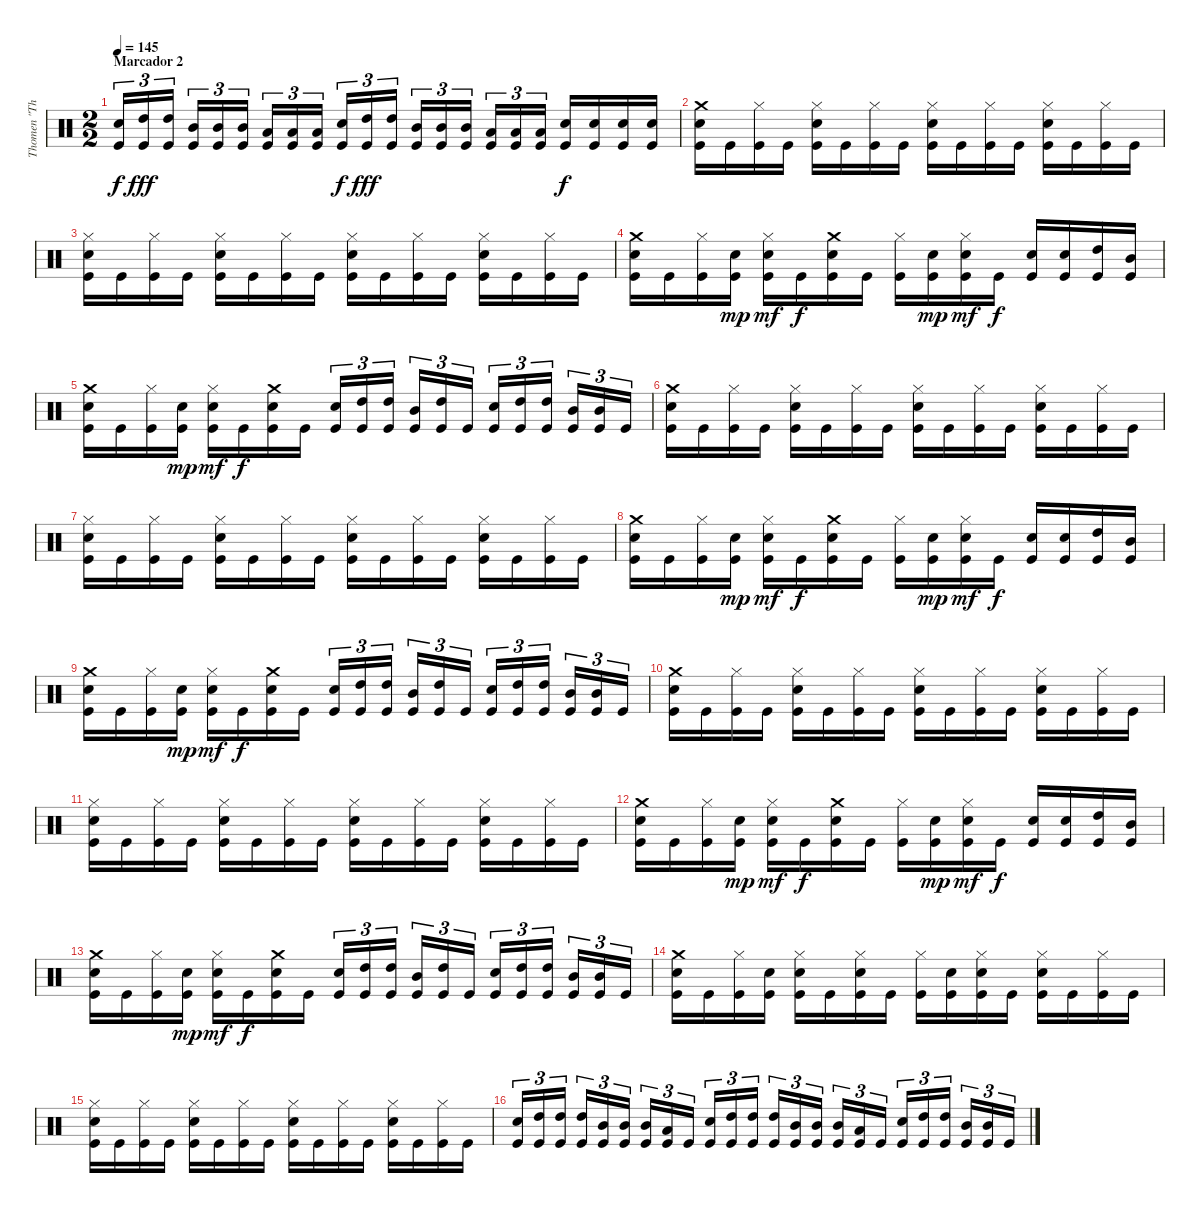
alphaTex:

\track ("Thomen \"The Omen\" Stauch" "Thomen \"Th") {instrument percussion}
\staff {score}
\articulation defaults
\ts (2 2)
\section ("" "Marcador 2")
\tempo 145
\clef neutral
\ks c
("Snare (hit) 2" "Kick (hit)").16{tu (3 2) dy f} ("High Tom (hit)" "Kick (hit)").16{tu (3 2) dy fff} ("High Tom (hit)" "Kick (hit)").16{tu (3 2)} ("Mid Tom (hit)" "Kick (hit)").16{tu (3 2)} ("Mid Tom (hit)" "Kick (hit)").16{tu (3 2)} ("Mid Tom (hit)" "Kick (hit)").16{tu (3 2)} ("Low Tom (hit)" "Kick (hit)").16{tu (3 2)} ("Low Tom (hit)" "Kick (hit)").16{tu (3 2)} ("Low Tom (hit)" "Kick (hit)").16{tu (3 2)} ("Snare (hit) 2" "Kick (hit)").16{tu (3 2) dy f} ("High Tom (hit)" "Kick (hit)").16{tu (3 2) dy fff} ("High Tom (hit)" "Kick (hit)").16{tu (3 2)} ("Mid Tom (hit)" "Kick (hit)").16{tu (3 2)} ("Mid Tom (hit)" "Kick (hit)").16{tu (3 2)} ("Mid Tom (hit)" "Kick (hit)").16{tu (3 2)} ("Low Tom (hit)" "Kick (hit)").16{tu (3 2)} ("Low Tom (hit)" "Kick (hit)").16{tu (3 2)} ("Low Tom (hit)" "Kick (hit)").16{tu (3 2)} ("Snare (hit) 2" "Kick (hit)").16{dy f} ("Snare (hit) 2" "Kick (hit)").16 ("Snare (hit) 2" "Kick (hit)").16 ("Snare (hit) 2" "Kick (hit)").16 |
("Crash medium (hit)" "Snare (hit) 2" "Kick (hit)").16 "Kick (hit)".16 ("Hi-Hat (closed)" "Kick (hit)").16 "Kick (hit)".16 ("Hi-Hat (closed)" "Snare (hit) 2" "Kick (hit)").16 "Kick (hit)".16 ("Hi-Hat (closed)" "Kick (hit)").16 "Kick (hit)".16 ("Hi-Hat (closed)" "Snare (hit) 2" "Kick (hit)").16 "Kick (hit)".16 ("Hi-Hat (closed)" "Kick (hit)").16 "Kick (hit)".16 ("Hi-Hat (closed)" "Snare (hit) 2" "Kick (hit)").16 "Kick (hit)".16 ("Hi-Hat (closed)" "Kick (hit)").16 "Kick (hit)".16 |
("Hi-Hat (closed)" "Snare (hit) 2" "Kick (hit)").16 "Kick (hit)".16 ("Hi-Hat (closed)" "Kick (hit)").16 "Kick (hit)".16 ("Hi-Hat (closed)" "Snare (hit) 2" "Kick (hit)").16 "Kick (hit)".16 ("Hi-Hat (closed)" "Kick (hit)").16 "Kick (hit)".16 ("Hi-Hat (closed)" "Snare (hit) 2" "Kick (hit)").16 "Kick (hit)".16 ("Hi-Hat (closed)" "Kick (hit)").16 "Kick (hit)".16 ("Hi-Hat (closed)" "Snare (hit) 2" "Kick (hit)").16 "Kick (hit)".16 ("Hi-Hat (closed)" "Kick (hit)").16 "Kick (hit)".16 |
("Crash medium (hit)" "Snare (hit) 2" "Kick (hit)").16 "Kick (hit)".16 ("Hi-Hat (closed)" "Kick (hit)").16 ("Snare (hit) 2" "Kick (hit)").16{dy mp} ("Hi-Hat (closed)" "Snare (hit) 2" "Kick (hit)").16{dy mf} "Kick (hit)".16{dy f} ("Crash medium (hit)" "Snare (hit) 2" "Kick (hit)").16 "Kick (hit)".16 ("Hi-Hat (closed)" "Kick (hit)").16 ("Snare (hit) 2" "Kick (hit)").16{dy mp} ("Hi-Hat (closed)" "Snare (hit) 2" "Kick (hit)").16{dy mf} "Kick (hit)".16{dy f} ("Snare (hit) 2" "Kick (hit)").16 ("Snare (hit) 2" "Kick (hit)").16 ("High Tom (hit)" "Kick (hit)").16 ("Mid Tom (hit)" "Kick (hit)").16 |
("Crash medium (hit)" "Snare (hit) 2" "Kick (hit)").16 "Kick (hit)".16 ("Hi-Hat (closed)" "Kick (hit)").16 ("Snare (hit) 2" "Kick (hit)").16{dy mp} ("Hi-Hat (closed)" "Snare (hit) 2" "Kick (hit)").16{dy mf} "Kick (hit)".16{dy f} ("Crash medium (hit)" "Snare (hit) 2" "Kick (hit)").16 "Kick (hit)".16 ("Snare (hit) 2" "Kick (hit)").16{tu (3 2)} ("High Tom (hit)" "Kick (hit)").16{tu (3 2)} ("High Tom (hit)" "Kick (hit)").16{tu (3 2)} ("Mid Tom (hit)" "Kick (hit)").16{tu (3 2)} ("High Tom (hit)" "Kick (hit)").16{tu (3 2)} "Kick (hit)".16{tu (3 2)} ("Snare (hit) 2" "Kick (hit)").16{tu (3 2)} ("High Tom (hit)" "Kick (hit)").16{tu (3 2)} ("High Tom (hit)" "Kick (hit)").16{tu (3 2)} ("Mid Tom (hit)" "Kick (hit)").16{tu (3 2)} ("Mid Tom (hit)" "Kick (hit)").16{tu (3 2)} "Kick (hit)".16{tu (3 2)} |
("Crash medium (hit)" "Snare (hit) 2" "Kick (hit)").16 "Kick (hit)".16 ("Hi-Hat (closed)" "Kick (hit)").16 "Kick (hit)".16 ("Hi-Hat (closed)" "Snare (hit) 2" "Kick (hit)").16 "Kick (hit)".16 ("Hi-Hat (closed)" "Kick (hit)").16 "Kick (hit)".16 ("Hi-Hat (closed)" "Snare (hit) 2" "Kick (hit)").16 "Kick (hit)".16 ("Hi-Hat (closed)" "Kick (hit)").16 "Kick (hit)".16 ("Hi-Hat (closed)" "Snare (hit) 2" "Kick (hit)").16 "Kick (hit)".16 ("Hi-Hat (closed)" "Kick (hit)").16 "Kick (hit)".16 |
("Hi-Hat (closed)" "Snare (hit) 2" "Kick (hit)").16 "Kick (hit)".16 ("Hi-Hat (closed)" "Kick (hit)").16 "Kick (hit)".16 ("Hi-Hat (closed)" "Snare (hit) 2" "Kick (hit)").16 "Kick (hit)".16 ("Hi-Hat (closed)" "Kick (hit)").16 "Kick (hit)".16 ("Hi-Hat (closed)" "Snare (hit) 2" "Kick (hit)").16 "Kick (hit)".16 ("Hi-Hat (closed)" "Kick (hit)").16 "Kick (hit)".16 ("Hi-Hat (closed)" "Snare (hit) 2" "Kick (hit)").16 "Kick (hit)".16 ("Hi-Hat (closed)" "Kick (hit)").16 "Kick (hit)".16 |
("Crash medium (hit)" "Snare (hit) 2" "Kick (hit)").16 "Kick (hit)".16 ("Hi-Hat (closed)" "Kick (hit)").16 ("Snare (hit) 2" "Kick (hit)").16{dy mp} ("Hi-Hat (closed)" "Snare (hit) 2" "Kick (hit)").16{dy mf} "Kick (hit)".16{dy f} ("Crash medium (hit)" "Snare (hit) 2" "Kick (hit)").16 "Kick (hit)".16 ("Hi-Hat (closed)" "Kick (hit)").16 ("Snare (hit) 2" "Kick (hit)").16{dy mp} ("Hi-Hat (closed)" "Snare (hit) 2" "Kick (hit)").16{dy mf} "Kick (hit)".16{dy f} ("Snare (hit) 2" "Kick (hit)").16 ("Snare (hit) 2" "Kick (hit)").16 ("High Tom (hit)" "Kick (hit)").16 ("Mid Tom (hit)" "Kick (hit)").16 |
("Crash medium (hit)" "Snare (hit) 2" "Kick (hit)").16 "Kick (hit)".16 ("Hi-Hat (closed)" "Kick (hit)").16 ("Snare (hit) 2" "Kick (hit)").16{dy mp} ("Hi-Hat (closed)" "Snare (hit) 2" "Kick (hit)").16{dy mf} "Kick (hit)".16{dy f} ("Crash medium (hit)" "Snare (hit) 2" "Kick (hit)").16 "Kick (hit)".16 ("Snare (hit) 2" "Kick (hit)").16{tu (3 2)} ("High Tom (hit)" "Kick (hit)").16{tu (3 2)} ("High Tom (hit)" "Kick (hit)").16{tu (3 2)} ("Mid Tom (hit)" "Kick (hit)").16{tu (3 2)} ("High Tom (hit)" "Kick (hit)").16{tu (3 2)} "Kick (hit)".16{tu (3 2)} ("Snare (hit) 2" "Kick (hit)").16{tu (3 2)} ("High Tom (hit)" "Kick (hit)").16{tu (3 2)} ("High Tom (hit)" "Kick (hit)").16{tu (3 2)} ("Mid Tom (hit)" "Kick (hit)").16{tu (3 2)} ("Mid Tom (hit)" "Kick (hit)").16{tu (3 2)} "Kick (hit)".16{tu (3 2)} |
("Crash medium (hit)" "Snare (hit) 2" "Kick (hit)").16 "Kick (hit)".16 ("Hi-Hat (closed)" "Kick (hit)").16 "Kick (hit)".16 ("Hi-Hat (closed)" "Snare (hit) 2" "Kick (hit)").16 "Kick (hit)".16 ("Hi-Hat (closed)" "Kick (hit)").16 "Kick (hit)".16 ("Hi-Hat (closed)" "Snare (hit) 2" "Kick (hit)").16 "Kick (hit)".16 ("Hi-Hat (closed)" "Kick (hit)").16 "Kick (hit)".16 ("Hi-Hat (closed)" "Snare (hit) 2" "Kick (hit)").16 "Kick (hit)".16 ("Hi-Hat (closed)" "Kick (hit)").16 "Kick (hit)".16 |
("Hi-Hat (closed)" "Snare (hit) 2" "Kick (hit)").16 "Kick (hit)".16 ("Hi-Hat (closed)" "Kick (hit)").16 "Kick (hit)".16 ("Hi-Hat (closed)" "Snare (hit) 2" "Kick (hit)").16 "Kick (hit)".16 ("Hi-Hat (closed)" "Kick (hit)").16 "Kick (hit)".16 ("Hi-Hat (closed)" "Snare (hit) 2" "Kick (hit)").16 "Kick (hit)".16 ("Hi-Hat (closed)" "Kick (hit)").16 "Kick (hit)".16 ("Hi-Hat (closed)" "Snare (hit) 2" "Kick (hit)").16 "Kick (hit)".16 ("Hi-Hat (closed)" "Kick (hit)").16 "Kick (hit)".16 |
("Crash medium (hit)" "Snare (hit) 2" "Kick (hit)").16 "Kick (hit)".16 ("Hi-Hat (closed)" "Kick (hit)").16 ("Snare (hit) 2" "Kick (hit)").16{dy mp} ("Hi-Hat (closed)" "Snare (hit) 2" "Kick (hit)").16{dy mf} "Kick (hit)".16{dy f} ("Crash medium (hit)" "Snare (hit) 2" "Kick (hit)").16 "Kick (hit)".16 ("Hi-Hat (closed)" "Kick (hit)").16 ("Snare (hit) 2" "Kick (hit)").16{dy mp} ("Hi-Hat (closed)" "Snare (hit) 2" "Kick (hit)").16{dy mf} "Kick (hit)".16{dy f} ("Snare (hit) 2" "Kick (hit)").16 ("Snare (hit) 2" "Kick (hit)").16 ("High Tom (hit)" "Kick (hit)").16 ("Mid Tom (hit)" "Kick (hit)").16 |
("Crash medium (hit)" "Snare (hit) 2" "Kick (hit)").16 "Kick (hit)".16 ("Hi-Hat (closed)" "Kick (hit)").16 ("Snare (hit) 2" "Kick (hit)").16{dy mp} ("Hi-Hat (closed)" "Snare (hit) 2" "Kick (hit)").16{dy mf} "Kick (hit)".16{dy f} ("Crash medium (hit)" "Snare (hit) 2" "Kick (hit)").16 "Kick (hit)".16 ("Snare (hit) 2" "Kick (hit)").16{tu (3 2)} ("High Tom (hit)" "Kick (hit)").16{tu (3 2)} ("High Tom (hit)" "Kick (hit)").16{tu (3 2)} ("Mid Tom (hit)" "Kick (hit)").16{tu (3 2)} ("High Tom (hit)" "Kick (hit)").16{tu (3 2)} "Kick (hit)".16{tu (3 2)} ("Snare (hit) 2" "Kick (hit)").16{tu (3 2)} ("High Tom (hit)" "Kick (hit)").16{tu (3 2)} ("High Tom (hit)" "Kick (hit)").16{tu (3 2)} ("Mid Tom (hit)" "Kick (hit)").16{tu (3 2)} ("Mid Tom (hit)" "Kick (hit)").16{tu (3 2)} "Kick (hit)".16{tu (3 2)} |
("Crash medium (hit)" "Snare (hit) 2" "Kick (hit)").16 "Kick (hit)".16 ("Hi-Hat (closed)" "Kick (hit)").16 ("Snare (hit) 2" "Kick (hit)").16 ("Hi-Hat (closed)" "Snare (hit) 2" "Kick (hit)").16 "Kick (hit)".16 ("Hi-Hat (closed)" "Snare (hit) 2" "Kick (hit)").16 "Kick (hit)".16 ("Hi-Hat (closed)" "Kick (hit)").16 ("Snare (hit) 2" "Kick (hit)").16 ("Hi-Hat (closed)" "Snare (hit) 2" "Kick (hit)").16 "Kick (hit)".16 ("Hi-Hat (closed)" "Snare (hit) 2" "Kick (hit)").16 "Kick (hit)".16 ("Hi-Hat (closed)" "Kick (hit)").16 "Kick (hit)".16 |
("Hi-Hat (closed)" "Snare (hit) 2" "Kick (hit)").16 "Kick (hit)".16 ("Hi-Hat (closed)" "Kick (hit)").16 "Kick (hit)".16 ("Hi-Hat (closed)" "Snare (hit) 2" "Kick (hit)").16 "Kick (hit)".16 ("Hi-Hat (closed)" "Kick (hit)").16 "Kick (hit)".16 ("Hi-Hat (closed)" "Snare (hit) 2" "Kick (hit)").16 "Kick (hit)".16 ("Hi-Hat (closed)" "Kick (hit)").16 "Kick (hit)".16 ("Hi-Hat (closed)" "Snare (hit) 2" "Kick (hit)").16 "Kick (hit)".16 ("Hi-Hat (closed)" "Kick (hit)").16 "Kick (hit)".16 |
("Snare (hit) 2" "Kick (hit)").16{tu (3 2)} ("High Tom (hit)" "Kick (hit)").16{tu (3 2)} ("High Tom (hit)" "Kick (hit)").16{tu (3 2)} ("High Tom (hit)" "Kick (hit)").16{tu (3 2)} ("Mid Tom (hit)" "Kick (hit)").16{tu (3 2)} ("Mid Tom (hit)" "Kick (hit)").16{tu (3 2)} ("Mid Tom (hit)" "Kick (hit)").16{tu (3 2)} ("Low Tom (hit)" "Kick (hit)").16{tu (3 2)} "Kick (hit)".16{tu (3 2)} ("Snare (hit) 2" "Kick (hit)").16{tu (3 2)} ("High Tom (hit)" "Kick (hit)").16{tu (3 2)} ("High Tom (hit)" "Kick (hit)").16{tu (3 2)} ("High Tom (hit)" "Kick (hit)").16{tu (3 2)} ("Mid Tom (hit)" "Kick (hit)").16{tu (3 2)} ("Mid Tom (hit)" "Kick (hit)").16{tu (3 2)} ("Mid Tom (hit)" "Kick (hit)").16{tu (3 2)} ("Low Tom (hit)" "Kick (hit)").16{tu (3 2)} "Kick (hit)".16{tu (3 2)} ("Snare (hit) 2" "Kick (hit)").16{tu (3 2)} ("High Tom (hit)" "Kick (hit)").16{tu (3 2)} ("High Tom (hit)" "Kick (hit)").16{tu (3 2)} ("Mid Tom (hit)" "Kick (hit)").16{tu (3 2)} ("Mid Tom (hit)" "Kick (hit)").16{tu (3 2)} "Kick (hit)".16{tu (3 2)}
